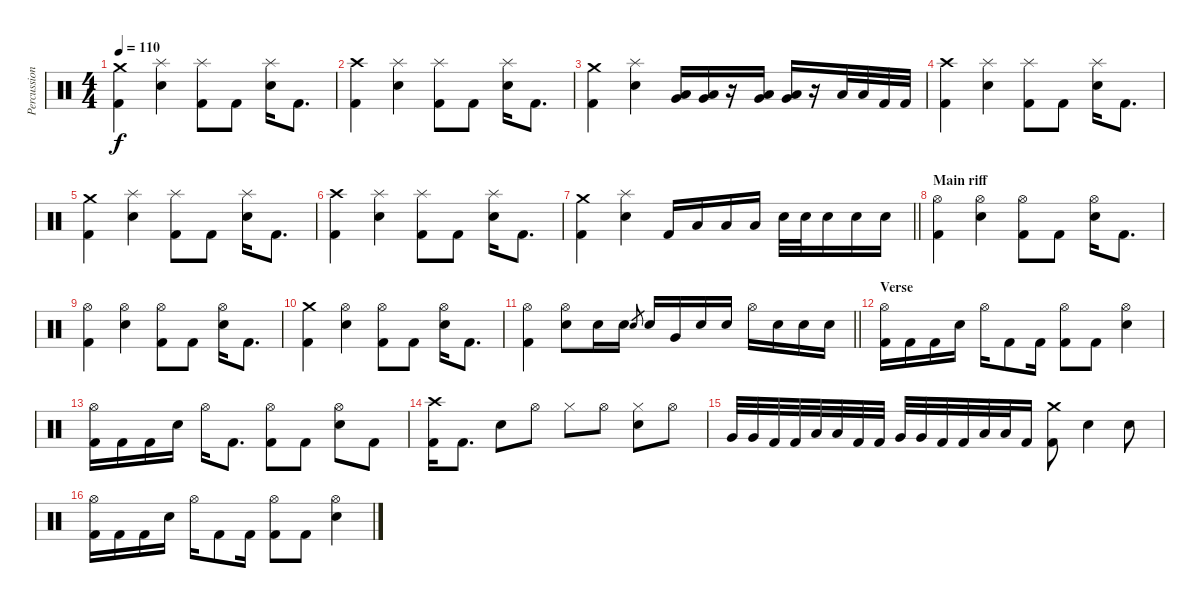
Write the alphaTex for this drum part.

\track ("Percussions" "Percussion") {instrument percussion}
\staff {score}
\articulation defaults
\ts (4 4)
\tempo 110
\clef neutral
\ks c
("Crash medium (hit)" "Kick (hit) 2").4{dy f} ("Splash (hit)" "Electric Snare (hit)").4 ("Splash (hit)" "Kick (hit) 2").8 "Kick (hit) 2".8 ("Splash (hit)" "Electric Snare (hit)").16 "Kick (hit) 2".8{d} |
("Crash high (hit)" "Kick (hit) 2").4 ("Splash (hit)" "Electric Snare (hit)").4 ("Splash (hit)" "Kick (hit) 2").8 "Kick (hit) 2".8 ("Splash (hit)" "Electric Snare (hit)").16 "Kick (hit) 2".8{d} |
("Crash medium (hit)" "Kick (hit) 2").4 ("Splash (hit)" "Electric Snare (hit)").4 ("Low Tom (hit)" "Very Low Tom (hit)").16 ("Low Tom (hit)" "Very Low Tom (hit)").16 r.16 ("Very Low Tom (hit)" "Low Floor Tom (hit)").16 ("Very Low Tom (hit)" "Low Floor Tom (hit)").16 r.16 "Low Floor Tom (hit)".32 "Low Floor Tom (hit)".32 "Kick (hit) 2".32 "Kick (hit) 2".32 |
("Crash high (hit)" "Kick (hit) 2").4 ("Splash (hit)" "Electric Snare (hit)").4 ("Splash (hit)" "Kick (hit) 2").8 "Kick (hit) 2".8 ("Splash (hit)" "Electric Snare (hit)").16 "Kick (hit) 2".8{d} |
("Crash medium (hit)" "Kick (hit) 2").4 ("Splash (hit)" "Electric Snare (hit)").4 ("Splash (hit)" "Kick (hit) 2").8 "Kick (hit) 2".8 ("Splash (hit)" "Electric Snare (hit)").16 "Kick (hit) 2".8{d} |
("Crash high (hit)" "Kick (hit) 2").4 ("Splash (hit)" "Electric Snare (hit)").4 ("Splash (hit)" "Kick (hit) 2").8 "Kick (hit) 2".8 ("Splash (hit)" "Electric Snare (hit)").16 "Kick (hit) 2".8{d} |
\barLineRight lightlight
("Crash medium (hit)" "Kick (hit) 2").4 ("Splash (hit)" "Electric Snare (hit)").4 "Kick (hit) 2".16 "Low Tom (hit)".16 "Low Tom (hit)".16 "Low Tom (hit)".16 "Electric Snare (hit)".32 "Electric Snare (hit)".32 "Electric Snare (hit)".16 "Electric Snare (hit)".16 "Electric Snare (hit)".16 |
\section ("" "Main riff")
("Hi-Hat (open)" "Kick (hit) 2").4 ("Hi-Hat (open)" "Electric Snare (hit)").4 ("Hi-Hat (open)" "Kick (hit) 2").8 "Kick (hit) 2".8 ("Hi-Hat (open)" "Electric Snare (hit)").16 "Kick (hit) 2".8{d} |
("Hi-Hat (open)" "Kick (hit) 2").4 ("Hi-Hat (open)" "Electric Snare (hit)").4 ("Hi-Hat (open)" "Kick (hit) 2").8 "Kick (hit) 2".8 ("Hi-Hat (open)" "Electric Snare (hit)").16 "Kick (hit) 2".8{d} |
("Crash medium (hit)" "Kick (hit) 2").4 ("Hi-Hat (open)" "Electric Snare (hit)").4 ("Hi-Hat (open)" "Kick (hit) 2").8 "Kick (hit) 2".8 ("Hi-Hat (open)" "Electric Snare (hit)").16 "Kick (hit) 2".8{d} |
\barLineRight lightlight
("Hi-Hat (open)" "Kick (hit) 2").4 ("Hi-Hat (open)" "Electric Snare (hit)").8 "Electric Snare (hit)".16 "Electric Snare (hit)".16 "Electric Snare (hit)".8{gr} "Electric Snare (hit)".16 "Very Low Tom (hit)".16 "Electric Snare (hit)".16 "Electric Snare (hit)".16 "Hi-Hat (open)".16 "Electric Snare (hit)".16 "Electric Snare (hit)".16 "Electric Snare (hit)".16 |
\section ("" "Verse")
("Hi-Hat (open)" "Kick (hit) 2").16 "Kick (hit) 2".16 "Kick (hit) 2".16 "Electric Snare (hit)".16 "Hi-Hat (open)".16 "Kick (hit) 2".8 "Kick (hit) 2".16 ("Hi-Hat (open)" "Kick (hit) 2").8 "Kick (hit) 2".8 ("Hi-Hat (open)" "Electric Snare (hit)").4 |
("Hi-Hat (open)" "Kick (hit) 2").16 "Kick (hit) 2".16 "Kick (hit) 2".16 "Electric Snare (hit)".16 "Hi-Hat (open)".16 "Kick (hit) 2".8{d} ("Hi-Hat (open)" "Kick (hit) 2").8 "Kick (hit) 2".8 ("Hi-Hat (open)" "Electric Snare (hit)").8 "Kick (hit) 2".8 |
("Crash high (hit)" "Kick (hit) 2").16 "Kick (hit) 2".8{d} "Electric Snare (hit)".8 "Hi-Hat (open)".8 "Hi-Hat (closed)".8 "Hi-Hat (open)".8 ("Hi-Hat (closed)" "Electric Snare (hit)").8 "Hi-Hat (open)".8 |
"Very Low Tom (hit)".32 "Very Low Tom (hit)".32 "Kick (hit) 2".32 "Kick (hit) 2".32 "Low Floor Tom (hit)".32 "Low Floor Tom (hit)".32 "Kick (hit) 2".32 "Kick (hit) 2".32 "Very Low Tom (hit)".32 "Very Low Tom (hit)".32 "Kick (hit) 2".32 "Kick (hit) 2".32 "Low Floor Tom (hit)".32 "Low Floor Tom (hit)".32 "Kick (hit) 2".16 ("Crash medium (hit)" "Kick (hit) 2").8 "Electric Snare (hit)".4 "Electric Snare (hit)".8 |
("Hi-Hat (open)" "Kick (hit) 2").16 "Kick (hit) 2".16 "Kick (hit) 2".16 "Electric Snare (hit)".16 "Hi-Hat (open)".16 "Kick (hit) 2".8 "Kick (hit) 2".16 ("Hi-Hat (open)" "Kick (hit) 2").8 "Kick (hit) 2".8 ("Hi-Hat (open)" "Electric Snare (hit)").4
